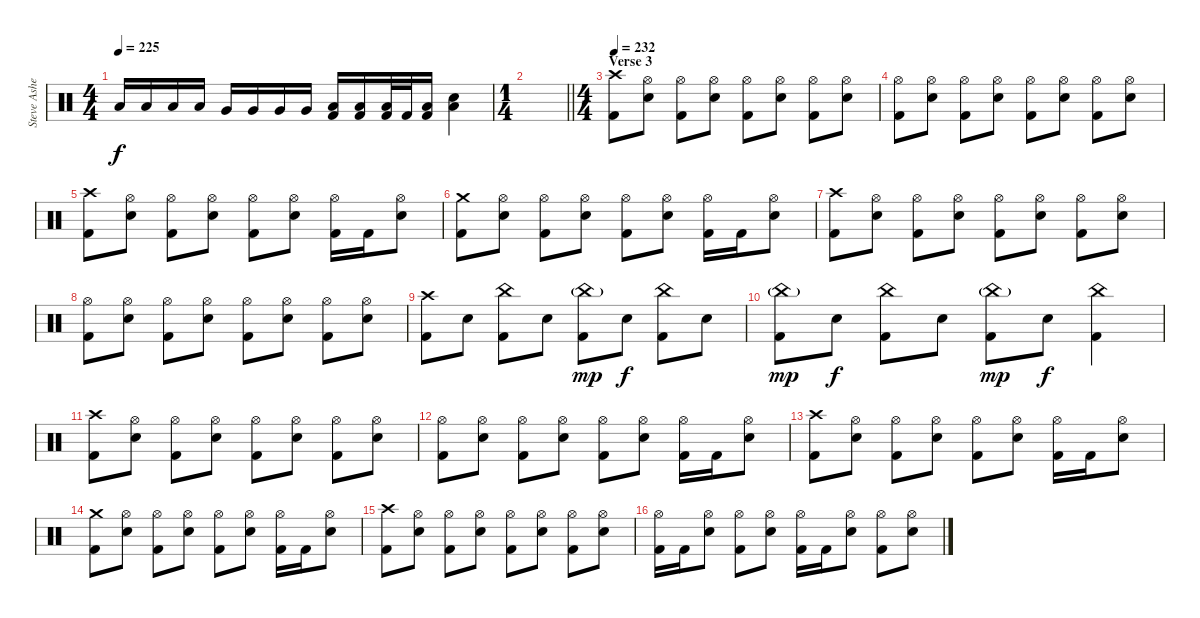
\track ("Steve Asheim" "Steve Ashe") {instrument percussion}
\staff {score}
\articulation defaults
\ts (4 4)
\tempo 225
\clef neutral
\ks c "Low Tom (hit)".16{dy f} "Low Tom (hit)".16 "Low Tom (hit)".16 "Low Tom (hit)".16 "Very Low Tom (hit)".16 "Very Low Tom (hit)".16 "Very Low Tom (hit)".16 "Very Low Tom (hit)".16
("Low Floor Tom (hit)" "Kick (hit) 2").16 ("Low Floor Tom (hit)" "Kick (hit) 2").16 ("Low Floor Tom (hit)" "Kick (hit) 2").32 "Kick (hit) 2".32 ("Low Floor Tom (hit)" "Kick (hit) 2").16 ("Electric Snare (hit)" "Low Floor Tom (hit)").4 |
\ts (1 4)
\barLineRight lightlight
|
\ts (4 4)
\section ("" "Verse 3")
\tempo 232
("Crash high (hit)" "Kick (hit) 2").8 ("Hi-Hat (open)" "Electric Snare (hit)").8 ("Hi-Hat (open)" "Kick (hit) 2").8 ("Hi-Hat (open)" "Electric Snare (hit)").8 ("Hi-Hat (open)" "Kick (hit) 2").8 ("Hi-Hat (open)" "Electric Snare (hit)").8 ("Hi-Hat (open)" "Kick (hit) 2").8 ("Hi-Hat (open)" "Electric Snare (hit)").8 |
("Hi-Hat (open)" "Kick (hit) 2").8 ("Hi-Hat (open)" "Electric Snare (hit)").8 ("Hi-Hat (open)" "Kick (hit) 2").8 ("Hi-Hat (open)" "Electric Snare (hit)").8 ("Hi-Hat (open)" "Kick (hit) 2").8 ("Hi-Hat (open)" "Electric Snare (hit)").8 ("Hi-Hat (open)" "Kick (hit) 2").8 ("Hi-Hat (open)" "Electric Snare (hit)").8 |
("Crash high (hit)" "Kick (hit) 2").8 ("Hi-Hat (open)" "Electric Snare (hit)").8 ("Hi-Hat (open)" "Kick (hit) 2").8 ("Hi-Hat (open)" "Electric Snare (hit)").8 ("Hi-Hat (open)" "Kick (hit) 2").8 ("Hi-Hat (open)" "Electric Snare (hit)").8 ("Hi-Hat (open)" "Kick (hit) 2").16 "Kick (hit) 2".16 ("Hi-Hat (open)" "Electric Snare (hit)").8 |
("Crash medium (hit)" "Kick (hit) 2").8 ("Hi-Hat (open)" "Electric Snare (hit)").8 ("Hi-Hat (open)" "Kick (hit) 2").8 ("Hi-Hat (open)" "Electric Snare (hit)").8 ("Hi-Hat (open)" "Kick (hit) 2").8 ("Hi-Hat (open)" "Electric Snare (hit)").8 ("Hi-Hat (open)" "Kick (hit) 2").16 "Kick (hit) 2".16 ("Hi-Hat (open)" "Electric Snare (hit)").8 |
("Crash high (hit)" "Kick (hit) 2").8 ("Hi-Hat (open)" "Electric Snare (hit)").8 ("Hi-Hat (open)" "Kick (hit) 2").8 ("Hi-Hat (open)" "Electric Snare (hit)").8 ("Hi-Hat (open)" "Kick (hit) 2").8 ("Hi-Hat (open)" "Electric Snare (hit)").8 ("Hi-Hat (open)" "Kick (hit) 2").8 ("Hi-Hat (open)" "Electric Snare (hit)").8 |
("Hi-Hat (open)" "Kick (hit) 2").8 ("Hi-Hat (open)" "Electric Snare (hit)").8 ("Hi-Hat (open)" "Kick (hit) 2").8 ("Hi-Hat (open)" "Electric Snare (hit)").8 ("Hi-Hat (open)" "Kick (hit) 2").8 ("Hi-Hat (open)" "Electric Snare (hit)").8 ("Hi-Hat (open)" "Kick (hit) 2").8 ("Hi-Hat (open)" "Electric Snare (hit)").8 |
("Crash high (hit)" "Kick (hit) 2").8 "Electric Snare (hit)".8 ("China (hit)" "Kick (hit) 2").8 "Electric Snare (hit)".8 ("China (hit)"{g} "Kick (hit) 2").8{dy mp} "Electric Snare (hit)".8{dy f} ("China (hit)" "Kick (hit) 2").8 "Electric Snare (hit)".8 |
("China (hit)"{g} "Kick (hit) 2").8{dy mp} "Electric Snare (hit)".8{dy f} ("China (hit)" "Kick (hit) 2").8 "Electric Snare (hit)".8 ("China (hit)"{g} "Kick (hit) 2").8{dy mp} "Electric Snare (hit)".8{dy f} ("China (hit)" "Kick (hit) 2").4 |
("Crash high (hit)" "Kick (hit) 2").8 ("Hi-Hat (open)" "Electric Snare (hit)").8 ("Hi-Hat (open)" "Kick (hit) 2").8 ("Hi-Hat (open)" "Electric Snare (hit)").8 ("Hi-Hat (open)" "Kick (hit) 2").8 ("Hi-Hat (open)" "Electric Snare (hit)").8 ("Hi-Hat (open)" "Kick (hit) 2").8 ("Hi-Hat (open)" "Electric Snare (hit)").8 |
("Hi-Hat (open)" "Kick (hit) 2").8 ("Hi-Hat (open)" "Electric Snare (hit)").8 ("Hi-Hat (open)" "Kick (hit) 2").8 ("Hi-Hat (open)" "Electric Snare (hit)").8 ("Hi-Hat (open)" "Kick (hit) 2").8 ("Hi-Hat (open)" "Electric Snare (hit)").8 ("Hi-Hat (open)" "Kick (hit) 2").16 "Kick (hit) 2".16 ("Hi-Hat (open)" "Electric Snare (hit)").8 |
("Crash high (hit)" "Kick (hit) 2").8 ("Hi-Hat (open)" "Electric Snare (hit)").8 ("Hi-Hat (open)" "Kick (hit) 2").8 ("Hi-Hat (open)" "Electric Snare (hit)").8 ("Hi-Hat (open)" "Kick (hit) 2").8 ("Hi-Hat (open)" "Electric Snare (hit)").8 ("Hi-Hat (open)" "Kick (hit) 2").16 "Kick (hit) 2".16 ("Hi-Hat (open)" "Electric Snare (hit)").8 |
("Crash medium (hit)" "Kick (hit) 2").8 ("Hi-Hat (open)" "Electric Snare (hit)").8 ("Hi-Hat (open)" "Kick (hit) 2").8 ("Hi-Hat (open)" "Electric Snare (hit)").8 ("Hi-Hat (open)" "Kick (hit) 2").8 ("Hi-Hat (open)" "Electric Snare (hit)").8 ("Hi-Hat (open)" "Kick (hit) 2").16 "Kick (hit) 2".16 ("Hi-Hat (open)" "Electric Snare (hit)").8 |
("Crash high (hit)" "Kick (hit) 2").8 ("Hi-Hat (open)" "Electric Snare (hit)").8 ("Hi-Hat (open)" "Kick (hit) 2").8 ("Hi-Hat (open)" "Electric Snare (hit)").8 ("Hi-Hat (open)" "Kick (hit) 2").8 ("Hi-Hat (open)" "Electric Snare (hit)").8 ("Hi-Hat (open)" "Kick (hit) 2").8 ("Hi-Hat (open)" "Electric Snare (hit)").8 |
("Hi-Hat (open)" "Kick (hit) 2").16 "Kick (hit) 2".16 ("Hi-Hat (open)" "Electric Snare (hit)").8 ("Hi-Hat (open)" "Kick (hit) 2").8 ("Hi-Hat (open)" "Electric Snare (hit)").8 ("Hi-Hat (open)" "Kick (hit) 2").16 "Kick (hit) 2".16 ("Hi-Hat (open)" "Electric Snare (hit)").8 ("Hi-Hat (open)" "Kick (hit) 2").8 ("Hi-Hat (open)" "Electric Snare (hit)").8
